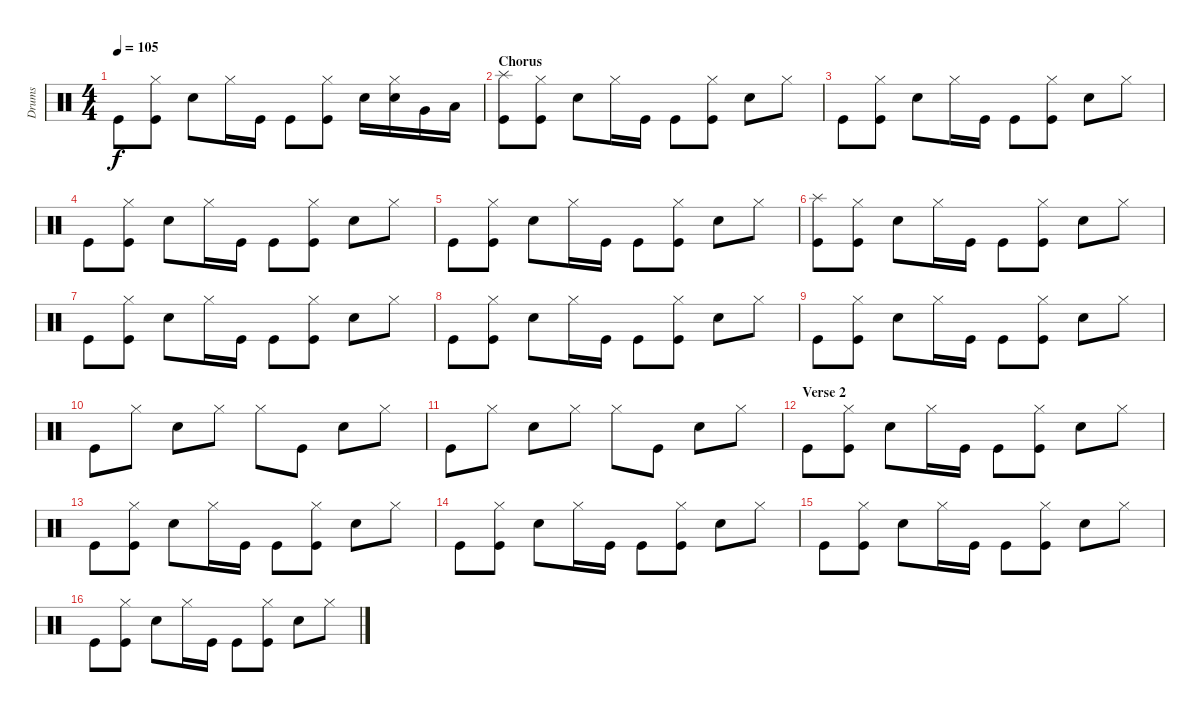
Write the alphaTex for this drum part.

\track ("Drums" "Drums") {instrument percussion}
\staff {score}
\articulation defaults
\ts (4 4)
\tempo 105
\clef neutral
\ks c "Kick (hit)".8{dy f}
("Kick (hit)" "Hi-Hat (closed)").8 "Electric Snare (hit)".8 "Hi-Hat (closed)".16 "Kick (hit)".16 "Kick (hit)".8 ("Kick (hit)" "Hi-Hat (closed)").8 "Electric Snare (hit)".16 ("Electric Snare (hit)" "Hi-Hat (closed)").16 "Very Low Tom (hit)".16 "Low Floor Tom (hit)".16 |
\section ("" "Chorus")
("Kick (hit)" "Splash (hit)").8 ("Kick (hit)" "Hi-Hat (closed)").8 "Electric Snare (hit)".8 "Hi-Hat (closed)".16 "Kick (hit)".16 "Kick (hit)".8 ("Kick (hit)" "Hi-Hat (closed)").8 "Electric Snare (hit)".8 "Hi-Hat (closed)".8 |
"Kick (hit)".8 ("Kick (hit)" "Hi-Hat (closed)").8 "Electric Snare (hit)".8 "Hi-Hat (closed)".16 "Kick (hit)".16 "Kick (hit)".8 ("Kick (hit)" "Hi-Hat (closed)").8 "Electric Snare (hit)".8 "Hi-Hat (closed)".8 |
"Kick (hit)".8 ("Kick (hit)" "Hi-Hat (closed)").8 "Electric Snare (hit)".8 "Hi-Hat (closed)".16 "Kick (hit)".16 "Kick (hit)".8 ("Kick (hit)" "Hi-Hat (closed)").8 "Electric Snare (hit)".8 "Hi-Hat (closed)".8 |
"Kick (hit)".8 ("Kick (hit)" "Hi-Hat (closed)").8 "Electric Snare (hit)".8 "Hi-Hat (closed)".16 "Kick (hit)".16 "Kick (hit)".8 ("Kick (hit)" "Hi-Hat (closed)").8 "Electric Snare (hit)".8 "Hi-Hat (closed)".8 |
("Kick (hit)" "Splash (hit)").8 ("Kick (hit)" "Hi-Hat (closed)").8 "Electric Snare (hit)".8 "Hi-Hat (closed)".16 "Kick (hit)".16 "Kick (hit)".8 ("Kick (hit)" "Hi-Hat (closed)").8 "Electric Snare (hit)".8 "Hi-Hat (closed)".8 |
"Kick (hit)".8 ("Kick (hit)" "Hi-Hat (closed)").8 "Electric Snare (hit)".8 "Hi-Hat (closed)".16 "Kick (hit)".16 "Kick (hit)".8 ("Kick (hit)" "Hi-Hat (closed)").8 "Electric Snare (hit)".8 "Hi-Hat (closed)".8 |
"Kick (hit)".8 ("Kick (hit)" "Hi-Hat (closed)").8 "Electric Snare (hit)".8 "Hi-Hat (closed)".16 "Kick (hit)".16 "Kick (hit)".8 ("Kick (hit)" "Hi-Hat (closed)").8 "Electric Snare (hit)".8 "Hi-Hat (closed)".8 |
"Kick (hit)".8 ("Kick (hit)" "Hi-Hat (closed)").8 "Electric Snare (hit)".8 "Hi-Hat (closed)".16 "Kick (hit)".16 "Kick (hit)".8 ("Kick (hit)" "Hi-Hat (closed)").8 "Electric Snare (hit)".8 "Hi-Hat (closed)".8 |
"Kick (hit)".8 "Hi-Hat (closed)".8 "Electric Snare (hit)".8 "Hi-Hat (closed)".8 "Hi-Hat (closed)".8 "Kick (hit)".8 "Electric Snare (hit)".8 "Hi-Hat (closed)".8 |
"Kick (hit)".8 "Hi-Hat (closed)".8 "Electric Snare (hit)".8 "Hi-Hat (closed)".8 "Hi-Hat (closed)".8 "Kick (hit)".8 "Electric Snare (hit)".8 "Hi-Hat (closed)".8 |
\section ("" "Verse 2")
"Kick (hit)".8 ("Kick (hit)" "Hi-Hat (closed)").8 "Electric Snare (hit)".8 "Hi-Hat (closed)".16 "Kick (hit)".16 "Kick (hit)".8 ("Kick (hit)" "Hi-Hat (closed)").8 "Electric Snare (hit)".8 "Hi-Hat (closed)".8 |
"Kick (hit)".8 ("Kick (hit)" "Hi-Hat (closed)").8 "Electric Snare (hit)".8 "Hi-Hat (closed)".16 "Kick (hit)".16 "Kick (hit)".8 ("Kick (hit)" "Hi-Hat (closed)").8 "Electric Snare (hit)".8 "Hi-Hat (closed)".8 |
"Kick (hit)".8 ("Kick (hit)" "Hi-Hat (closed)").8 "Electric Snare (hit)".8 "Hi-Hat (closed)".16 "Kick (hit)".16 "Kick (hit)".8 ("Kick (hit)" "Hi-Hat (closed)").8 "Electric Snare (hit)".8 "Hi-Hat (closed)".8 |
"Kick (hit)".8 ("Kick (hit)" "Hi-Hat (closed)").8 "Electric Snare (hit)".8 "Hi-Hat (closed)".16 "Kick (hit)".16 "Kick (hit)".8 ("Kick (hit)" "Hi-Hat (closed)").8 "Electric Snare (hit)".8 "Hi-Hat (closed)".8 |
"Kick (hit)".8 ("Kick (hit)" "Hi-Hat (closed)").8 "Electric Snare (hit)".8 "Hi-Hat (closed)".16 "Kick (hit)".16 "Kick (hit)".8 ("Kick (hit)" "Hi-Hat (closed)").8 "Electric Snare (hit)".8 "Hi-Hat (closed)".8
